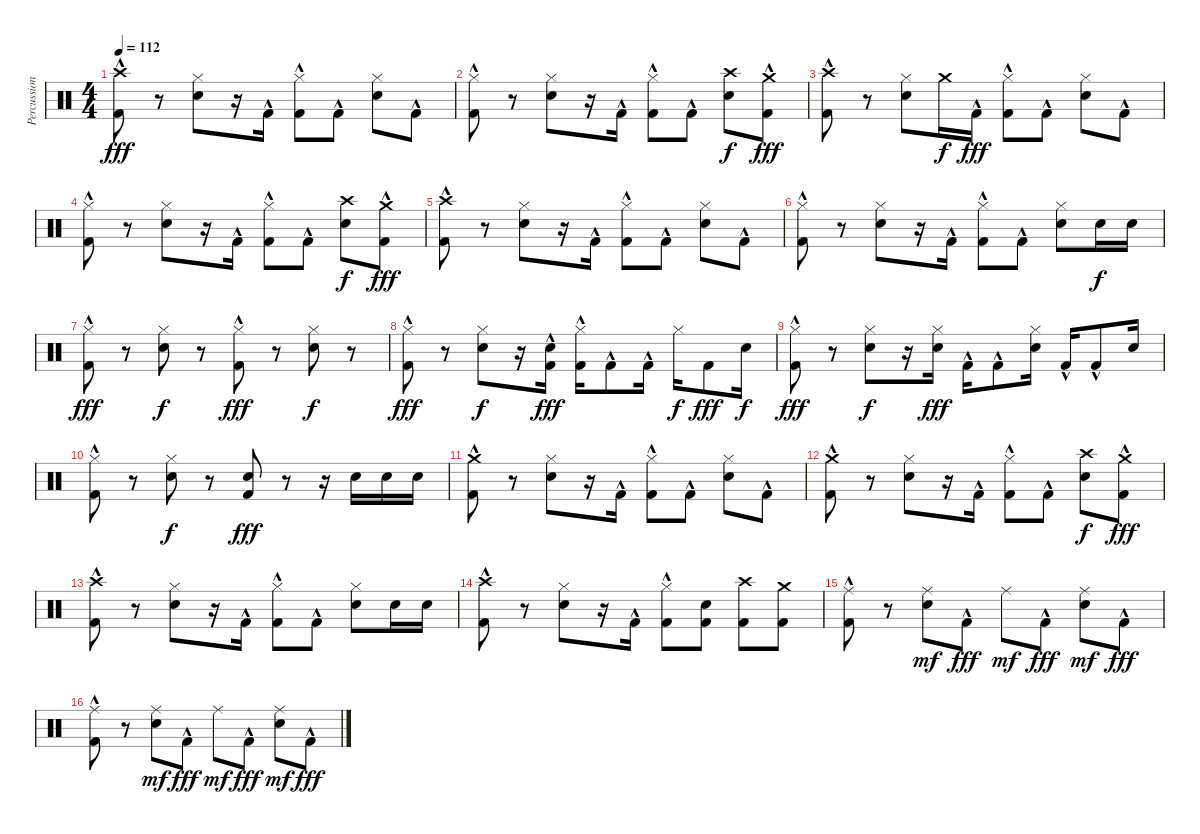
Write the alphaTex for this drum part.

\track ("Percussions" "Percussion") {instrument percussion}
\staff {score}
\articulation defaults
\ts (4 4)
\tempo 112
\clef neutral
\ks c
("Crash high (hit)" "Kick (hit) 2"{hac}).8{dy fff} r.8 ("Hi-Hat (closed)" "Snare (hit) 2").8 r.16 "Kick (hit) 2"{hac}.16 ("Hi-Hat (closed)" "Kick (hit) 2"{hac}).8 "Kick (hit) 2"{hac}.8 ("Hi-Hat (closed)" "Snare (hit) 2").8 "Kick (hit) 2"{hac}.8 |
("Hi-Hat (closed)" "Kick (hit) 2"{hac}).8 r.8 ("Hi-Hat (closed)" "Snare (hit) 2").8 r.16 "Kick (hit) 2"{hac}.16 ("Hi-Hat (closed)" "Kick (hit) 2"{hac}).8 "Kick (hit) 2"{hac}.8 ("Crash high (hit)" "Snare (hit) 2").8{dy f} ("Crash medium (hit)" "Kick (hit) 2"{hac}).8{dy fff} |
("Crash high (hit)" "Kick (hit) 2"{hac}).8 r.8 ("Hi-Hat (closed)" "Snare (hit) 2").8 "Crash medium (hit)".16{dy f} "Kick (hit) 2"{hac}.16{dy fff} ("Hi-Hat (closed)" "Kick (hit) 2"{hac}).8 "Kick (hit) 2"{hac}.8 ("Hi-Hat (closed)" "Snare (hit) 2").8 "Kick (hit) 2"{hac}.8 |
("Hi-Hat (closed)" "Kick (hit) 2"{hac}).8 r.8 ("Hi-Hat (closed)" "Snare (hit) 2").8 r.16 "Kick (hit) 2"{hac}.16 ("Hi-Hat (closed)" "Kick (hit) 2"{hac}).8 "Kick (hit) 2"{hac}.8 ("Crash high (hit)" "Snare (hit) 2").8{dy f} ("Crash medium (hit)" "Kick (hit) 2"{hac}).8{dy fff} |
("Crash high (hit)" "Kick (hit) 2"{hac}).8 r.8 ("Hi-Hat (closed)" "Snare (hit) 2").8 r.16 "Kick (hit) 2"{hac}.16 ("Hi-Hat (closed)" "Kick (hit) 2"{hac}).8 "Kick (hit) 2"{hac}.8 ("Hi-Hat (closed)" "Snare (hit) 2").8 "Kick (hit) 2"{hac}.8 |
("Hi-Hat (closed)" "Kick (hit) 2"{hac}).8 r.8 ("Hi-Hat (closed)" "Snare (hit) 2").8 r.16 "Kick (hit) 2"{hac}.16 ("Hi-Hat (closed)" "Kick (hit) 2"{hac}).8 "Kick (hit) 2"{hac}.8 ("Hi-Hat (closed)" "Snare (hit) 2").8 "Snare (hit) 2".16{dy f} "Snare (hit) 2".16 |
("Hi-Hat (closed)" "Kick (hit) 2"{hac}).8{dy fff} r.8 ("Hi-Hat (closed)" "Snare (hit) 2").8{dy f} r.8 ("Hi-Hat (closed)" "Kick (hit) 2"{hac}).8{dy fff} r.8 ("Hi-Hat (closed)" "Snare (hit) 2").8{dy f} r.8 |
("Hi-Hat (closed)" "Kick (hit) 2"{hac}).8{dy fff} r.8 ("Hi-Hat (closed)" "Snare (hit) 2").8{dy f} r.16 ("Snare (hit) 2" "Kick (hit) 2"{hac}).16{dy fff} ("Hi-Hat (closed)" "Kick (hit) 2"{hac}).16 "Kick (hit) 2"{hac}.8 "Kick (hit) 2"{hac}.16 "Hi-Hat (closed)".16{dy f} "Kick (hit) 2".8{dy fff} "Snare (hit) 2".16{dy f} |
("Hi-Hat (closed)" "Kick (hit) 2"{hac}).8{dy fff} r.8 ("Hi-Hat (closed)" "Snare (hit) 2").8{dy f} r.16 ("Hi-Hat (closed)" "Snare (hit) 2").16{dy fff} "Kick (hit) 2"{hac}.16 "Kick (hit) 2"{hac}.8 ("Hi-Hat (closed)" "Snare (hit) 2").16 "Kick (hit) 2"{hac}.16 "Kick (hit) 2"{hac}.8 "Snare (hit) 2".16 |
("Hi-Hat (closed)" "Kick (hit) 2"{hac}).8 r.8 ("Hi-Hat (closed)" "Snare (hit) 2").8{dy f} r.8 ("Snare (hit) 2" "Kick (hit) 2").8{dy fff} r.8 r.16 "Snare (hit) 2".16 "Snare (hit) 2".16 "Snare (hit) 2".16 |
("Crash medium (hit)" "Kick (hit) 2"{hac}).8 r.8 ("Hi-Hat (closed)" "Snare (hit) 2").8 r.16 "Kick (hit) 2"{hac}.16 ("Hi-Hat (closed)" "Kick (hit) 2"{hac}).8 "Kick (hit) 2"{hac}.8 ("Hi-Hat (closed)" "Snare (hit) 2").8 "Kick (hit) 2"{hac}.8 |
("Crash medium (hit)" "Kick (hit) 2"{hac}).8 r.8 ("Hi-Hat (closed)" "Snare (hit) 2").8 r.16 "Kick (hit) 2"{hac}.16 ("Hi-Hat (closed)" "Kick (hit) 2"{hac}).8 "Kick (hit) 2"{hac}.8 ("Crash high (hit)" "Snare (hit) 2").8{dy f} ("Crash medium (hit)" "Kick (hit) 2"{hac}).8{dy fff} |
("Crash high (hit)" "Kick (hit) 2"{hac}).8 r.8 ("Hi-Hat (closed)" "Snare (hit) 2").8 r.16 "Kick (hit) 2"{hac}.16 ("Hi-Hat (closed)" "Kick (hit) 2"{hac}).8 "Kick (hit) 2"{hac}.8 ("Hi-Hat (closed)" "Snare (hit) 2").8 "Snare (hit) 2".16 "Snare (hit) 2".16 |
("Crash high (hit)" "Kick (hit) 2"{hac}).8 r.8 ("Hi-Hat (closed)" "Snare (hit) 2").8 r.16 "Kick (hit) 2"{hac}.16 ("Hi-Hat (closed)" "Kick (hit) 2"{hac}).8 ("Snare (hit) 2" "Kick (hit) 2").8 ("Crash high (hit)" "Kick (hit) 2").8 ("Crash medium (hit)" "Kick (hit) 2").8 |
("Ride (middle)" "Kick (hit) 2"{hac}).8 r.8 ("Ride (middle)" "Snare (hit) 2").8{dy mf} "Kick (hit) 2"{hac}.8{dy fff} "Ride (middle)".8{dy mf} "Kick (hit) 2"{hac}.8{dy fff} ("Ride (middle)" "Snare (hit) 2").8{dy mf} "Kick (hit) 2"{hac}.8{dy fff} |
("Ride (middle)" "Kick (hit) 2"{hac}).8 r.8 ("Ride (middle)" "Snare (hit) 2").8{dy mf} "Kick (hit) 2"{hac}.8{dy fff} "Ride (middle)".8{dy mf} "Kick (hit) 2"{hac}.8{dy fff} ("Ride (middle)" "Snare (hit) 2").8{dy mf} "Kick (hit) 2"{hac}.8{dy fff}
